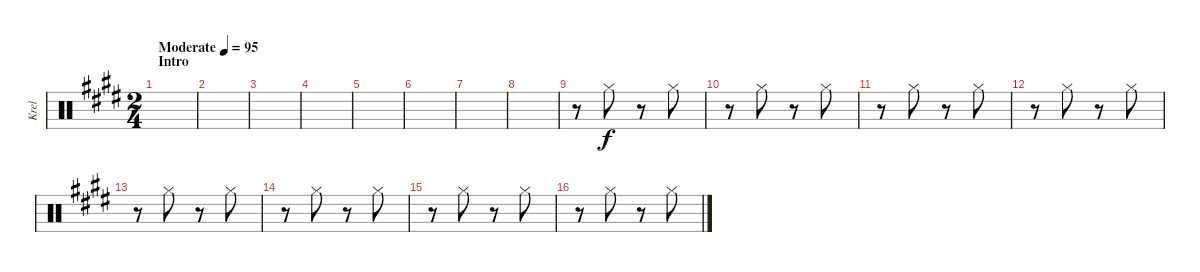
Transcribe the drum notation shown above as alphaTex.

\track ("Krel" "Krel") {instrument percussion}
\staff {score}
\articulation defaults
\ts (2 4)
\section ("" "Intro")
\tempo (95 "Moderate")
\clef neutral
\ks e
|
|
|
|
|
|
|
|
r.8 "Hi-Hat (closed)".8 r.8 "Hi-Hat (closed)".8 |
r.8 "Hi-Hat (closed)".8 r.8 "Hi-Hat (closed)".8 |
r.8 "Hi-Hat (closed)".8 r.8 "Hi-Hat (closed)".8 |
r.8 "Hi-Hat (closed)".8 r.8 "Hi-Hat (closed)".8 |
r.8 "Hi-Hat (closed)".8 r.8 "Hi-Hat (closed)".8 |
r.8 "Hi-Hat (closed)".8 r.8 "Hi-Hat (closed)".8 |
r.8 "Hi-Hat (closed)".8 r.8 "Hi-Hat (closed)".8 |
r.8 "Hi-Hat (closed)".8 r.8 "Hi-Hat (closed)".8
